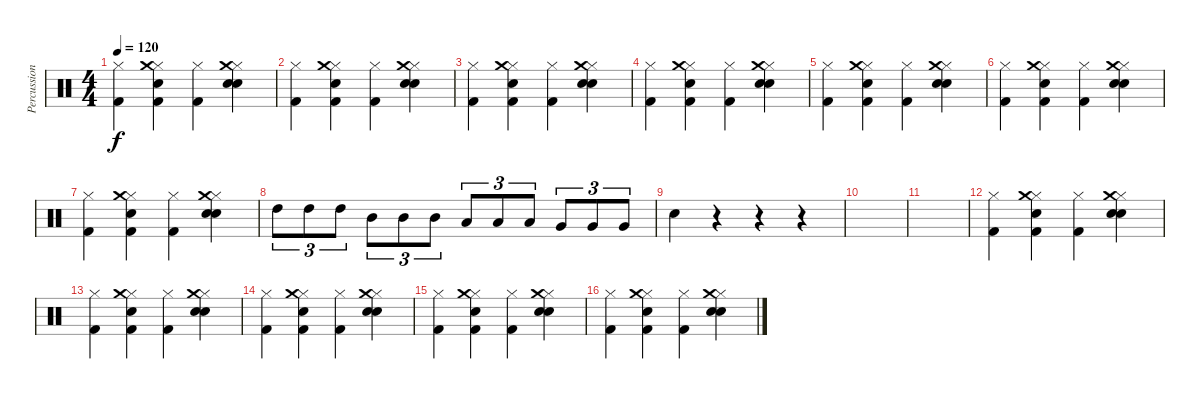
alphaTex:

\track ("Percussion" "Percussion") {instrument percussion}
\staff {score}
\articulation defaults
\ts (4 4)
\tempo 120
\clef neutral
\ks c
("Hi-Hat (closed)" "Kick (hit) 2").4{dy f} ("Hi-Hat (closed)" "Snare (hit) 2" "Kick (hit) 2" "Crash medium (hit)").4 ("Hi-Hat (closed)" "Kick (hit) 2").4 ("Hi-Hat (closed)" "Snare (hit) 2" "Snare (hit) 2" "Crash medium (hit)").4 |
("Hi-Hat (closed)" "Kick (hit) 2").4 ("Hi-Hat (closed)" "Snare (hit) 2" "Kick (hit) 2" "Crash medium (hit)").4 ("Hi-Hat (closed)" "Kick (hit) 2").4 ("Hi-Hat (closed)" "Snare (hit) 2" "Snare (hit) 2" "Crash medium (hit)").4 |
("Hi-Hat (closed)" "Kick (hit) 2").4 ("Hi-Hat (closed)" "Snare (hit) 2" "Kick (hit) 2" "Crash medium (hit)").4 ("Hi-Hat (closed)" "Kick (hit) 2").4 ("Hi-Hat (closed)" "Snare (hit) 2" "Snare (hit) 2" "Crash medium (hit)").4 |
("Hi-Hat (closed)" "Kick (hit) 2").4 ("Hi-Hat (closed)" "Snare (hit) 2" "Kick (hit) 2" "Crash medium (hit)").4 ("Hi-Hat (closed)" "Kick (hit) 2").4 ("Hi-Hat (closed)" "Snare (hit) 2" "Snare (hit) 2" "Crash medium (hit)").4 |
("Hi-Hat (closed)" "Kick (hit) 2").4 ("Hi-Hat (closed)" "Snare (hit) 2" "Kick (hit) 2" "Crash medium (hit)").4 ("Hi-Hat (closed)" "Kick (hit) 2").4 ("Hi-Hat (closed)" "Snare (hit) 2" "Snare (hit) 2" "Crash medium (hit)").4 |
("Hi-Hat (closed)" "Kick (hit) 2").4 ("Hi-Hat (closed)" "Snare (hit) 2" "Kick (hit) 2" "Crash medium (hit)").4 ("Hi-Hat (closed)" "Kick (hit) 2").4 ("Hi-Hat (closed)" "Snare (hit) 2" "Snare (hit) 2" "Crash medium (hit)").4 |
("Hi-Hat (closed)" "Kick (hit) 2").4 ("Hi-Hat (closed)" "Snare (hit) 2" "Kick (hit) 2" "Crash medium (hit)").4 ("Hi-Hat (closed)" "Kick (hit) 2").4 ("Hi-Hat (closed)" "Snare (hit) 2" "Snare (hit) 2" "Crash medium (hit)").4 |
"High Tom (hit)".8{tu (3 2)} "High Tom (hit)".8{tu (3 2)} "High Tom (hit)".8{tu (3 2)} "Mid Tom (hit)".8{tu (3 2)} "Mid Tom (hit)".8{tu (3 2)} "Mid Tom (hit)".8{tu (3 2)} "Low Tom (hit)".8{tu (3 2)} "Low Tom (hit)".8{tu (3 2)} "Low Tom (hit)".8{tu (3 2)} "Very Low Tom (hit)".8{tu (3 2)} "Very Low Tom (hit)".8{tu (3 2)} "Very Low Tom (hit)".8{tu (3 2)} |
"Snare (hit) 2".4 r.4 r.4 r.4 |
|
|
("Hi-Hat (closed)" "Kick (hit) 2").4 ("Hi-Hat (closed)" "Snare (hit) 2" "Kick (hit) 2" "Crash medium (hit)").4 ("Hi-Hat (closed)" "Kick (hit) 2").4 ("Hi-Hat (closed)" "Snare (hit) 2" "Snare (hit) 2" "Crash medium (hit)").4 |
("Hi-Hat (closed)" "Kick (hit) 2").4 ("Hi-Hat (closed)" "Snare (hit) 2" "Kick (hit) 2" "Crash medium (hit)").4 ("Hi-Hat (closed)" "Kick (hit) 2").4 ("Hi-Hat (closed)" "Snare (hit) 2" "Snare (hit) 2" "Crash medium (hit)").4 |
("Hi-Hat (closed)" "Kick (hit) 2").4 ("Hi-Hat (closed)" "Snare (hit) 2" "Kick (hit) 2" "Crash medium (hit)").4 ("Hi-Hat (closed)" "Kick (hit) 2").4 ("Hi-Hat (closed)" "Snare (hit) 2" "Snare (hit) 2" "Crash medium (hit)").4 |
("Hi-Hat (closed)" "Kick (hit) 2").4 ("Hi-Hat (closed)" "Snare (hit) 2" "Kick (hit) 2" "Crash medium (hit)").4 ("Hi-Hat (closed)" "Kick (hit) 2").4 ("Hi-Hat (closed)" "Snare (hit) 2" "Snare (hit) 2" "Crash medium (hit)").4 |
("Hi-Hat (closed)" "Kick (hit) 2").4 ("Hi-Hat (closed)" "Snare (hit) 2" "Kick (hit) 2" "Crash medium (hit)").4 ("Hi-Hat (closed)" "Kick (hit) 2").4 ("Hi-Hat (closed)" "Snare (hit) 2" "Snare (hit) 2" "Crash medium (hit)").4
